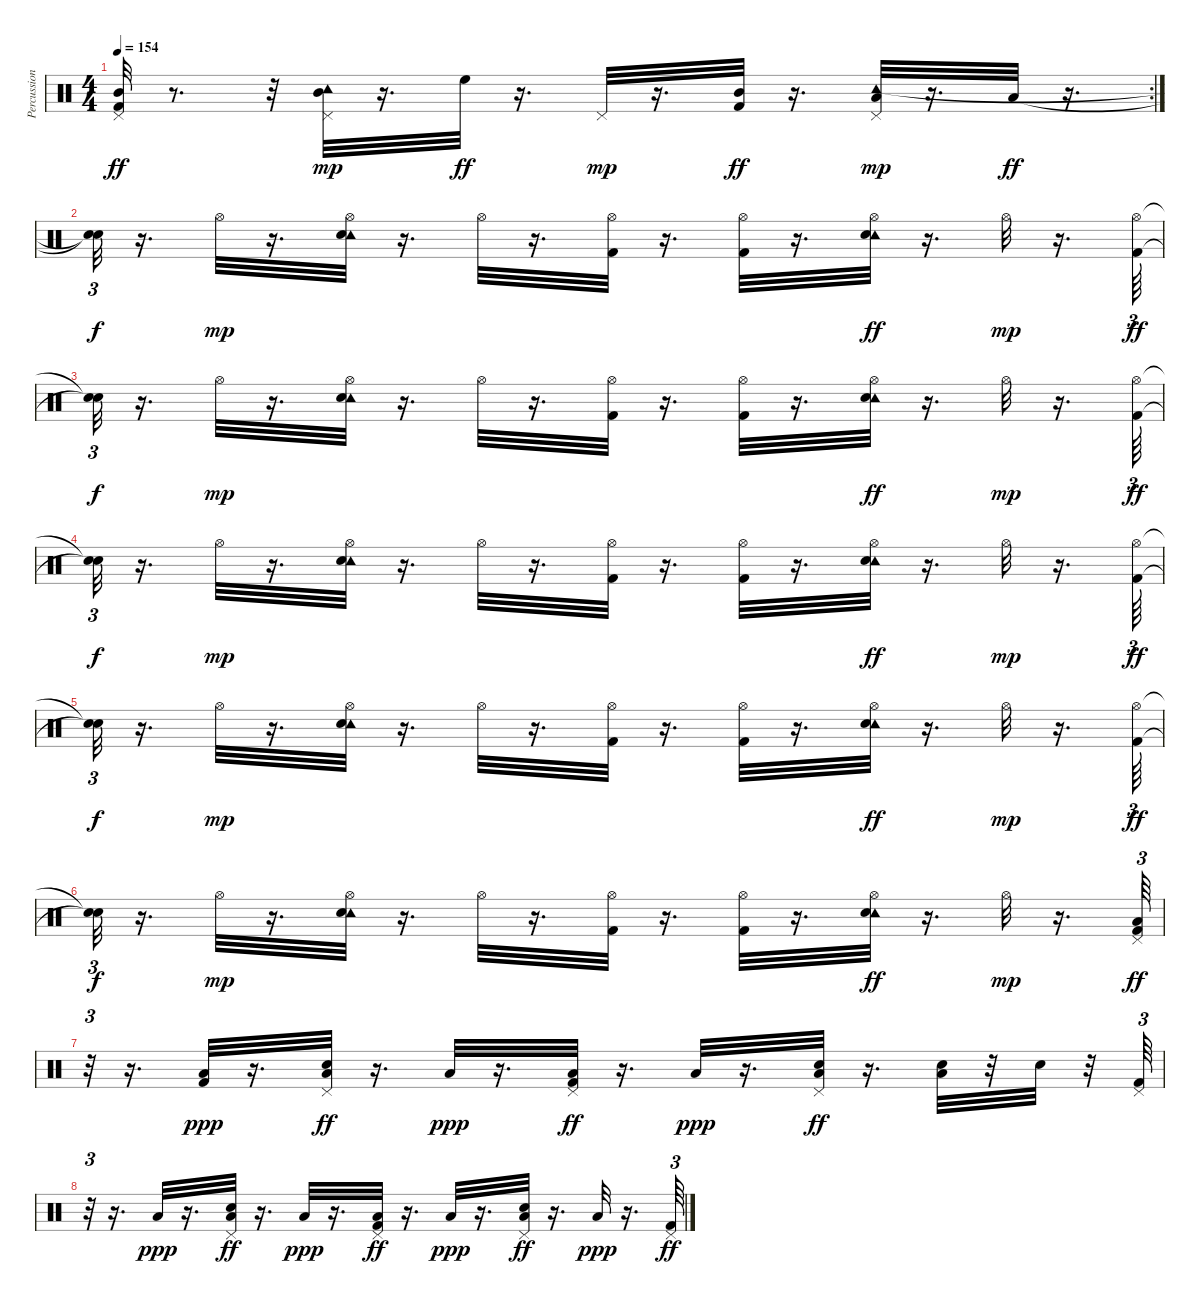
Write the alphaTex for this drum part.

\track ("Percussions" "Percussion") {instrument percussion}
\staff {score}
\articulation defaults
\rc 2
\ts (4 4)
\tempo 154
\clef neutral
\ks c
("Mid Tom (hit)" "Pedal Hi-Hat (hit)" "Kick (hit) 2").32{dy ff} r.8{d} r.32 ("Mid Tom (hit)" "Tambourine (hit)" "Pedal Hi-Hat (hit)").32{dy mp} r.16{d} "High Floor Tom (hit)".32{dy ff} r.16{d} "Pedal Hi-Hat (hit)".32{dy mp} r.16{d} ("Mid Tom (hit)" "Kick (hit) 2").32{dy ff} r.16{d} ("Low Tom (hit)" "Tambourine (hit)" "Pedal Hi-Hat (hit)").32{dy mp} r.16{d} "Low Tom (hit)".32{dy ff} r.16{d} |
("Snare (hit)"{t} "Snare (hit)"{t}).32{tu (3 2) dy f} r.16{d} "Hi-Hat (open)".32{dy mp} r.16{d} ("Hi-Hat (open)" "Tambourine (hit)" "Snare (hit) 2").32 r.16{d} "Hi-Hat (open)".32 r.16{d} ("Hi-Hat (open)" "Kick (hit) 2").32 r.16{d} ("Hi-Hat (open)" "Kick (hit) 2").32 r.16{d} ("Hi-Hat (open)" "Tambourine (hit)" "Snare (hit) 2").32{dy ff} r.16{d} "Hi-Hat (open)".32{dy mp} r.16{d} ("Hi-Hat (open)" "Kick (hit) 2").64{tu (3 2) dy ff} |
("Snare (hit)"{t} "Snare (hit)"{t}).32{tu (3 2) dy f} r.16{d} "Hi-Hat (open)".32{dy mp} r.16{d} ("Hi-Hat (open)" "Tambourine (hit)" "Snare (hit) 2").32 r.16{d} "Hi-Hat (open)".32 r.16{d} ("Hi-Hat (open)" "Kick (hit) 2").32 r.16{d} ("Hi-Hat (open)" "Kick (hit) 2").32 r.16{d} ("Hi-Hat (open)" "Tambourine (hit)" "Snare (hit) 2").32{dy ff} r.16{d} "Hi-Hat (open)".32{dy mp} r.16{d} ("Hi-Hat (open)" "Kick (hit) 2").64{tu (3 2) dy ff} |
("Snare (hit)"{t} "Snare (hit)"{t}).32{tu (3 2) dy f} r.16{d} "Hi-Hat (open)".32{dy mp} r.16{d} ("Hi-Hat (open)" "Tambourine (hit)" "Snare (hit) 2").32 r.16{d} "Hi-Hat (open)".32 r.16{d} ("Hi-Hat (open)" "Kick (hit) 2").32 r.16{d} ("Hi-Hat (open)" "Kick (hit) 2").32 r.16{d} ("Hi-Hat (open)" "Tambourine (hit)" "Snare (hit) 2").32{dy ff} r.16{d} "Hi-Hat (open)".32{dy mp} r.16{d} ("Hi-Hat (open)" "Kick (hit) 2").64{tu (3 2) dy ff} |
("Snare (hit)"{t} "Snare (hit)"{t}).32{tu (3 2) dy f} r.16{d} "Hi-Hat (open)".32{dy mp} r.16{d} ("Hi-Hat (open)" "Tambourine (hit)" "Snare (hit) 2").32 r.16{d} "Hi-Hat (open)".32 r.16{d} ("Hi-Hat (open)" "Kick (hit) 2").32 r.16{d} ("Hi-Hat (open)" "Kick (hit) 2").32 r.16{d} ("Hi-Hat (open)" "Tambourine (hit)" "Snare (hit) 2").32{dy ff} r.16{d} "Hi-Hat (open)".32{dy mp} r.16{d} ("Hi-Hat (open)" "Kick (hit) 2").64{tu (3 2) dy ff} |
("Snare (hit)"{t} "Snare (hit)"{t}).32{tu (3 2) dy f} r.16{d} "Hi-Hat (open)".32{dy mp} r.16{d} ("Hi-Hat (open)" "Tambourine (hit)" "Snare (hit) 2").32 r.16{d} "Hi-Hat (open)".32 r.16{d} ("Hi-Hat (open)" "Kick (hit) 2").32 r.16{d} ("Hi-Hat (open)" "Kick (hit) 2").32 r.16{d} ("Hi-Hat (open)" "Tambourine (hit)" "Snare (hit) 2").32{dy ff} r.16{d} "Hi-Hat (open)".32{dy mp} r.16{d} ("Pedal Hi-Hat (hit)" "Low Tom (hit)" "Kick (hit) 2").64{tu (3 2) dy ff} |
r.32{tu (3 2)} r.16{d} ("Low Tom (hit)" "Kick (hit) 2").32{dy ppp} r.16{d} ("Pedal Hi-Hat (hit)" "Low Tom (hit)" "Snare (hit) 2").32{dy ff} r.16{d} "Low Tom (hit)".32{dy ppp} r.16{d} ("Pedal Hi-Hat (hit)" "Low Tom (hit)" "Kick (hit) 2").32{dy ff} r.16{d} "Low Tom (hit)".32{dy ppp} r.16{d} ("Pedal Hi-Hat (hit)" "Low Tom (hit)" "Snare (hit) 2").32{dy ff} r.16{d} ("Low Tom (hit)" "Snare (hit) 2").32 r.32 "Snare (hit) 2".32 r.32 ("Pedal Hi-Hat (hit)" "Kick (hit) 2").64{tu (3 2)} |
r.32{tu (3 2)} r.16{d} "Low Tom (hit)".32{dy ppp} r.16{d} ("Pedal Hi-Hat (hit)" "Low Tom (hit)" "Snare (hit) 2").32{dy ff} r.16{d} "Low Tom (hit)".32{dy ppp} r.16{d} ("Pedal Hi-Hat (hit)" "Low Tom (hit)" "Kick (hit) 2").32{dy ff} r.16{d} "Low Tom (hit)".32{dy ppp} r.16{d} ("Pedal Hi-Hat (hit)" "Low Tom (hit)" "Snare (hit) 2").32{dy ff} r.16{d} "Low Tom (hit)".32{dy ppp} r.16{d} ("Pedal Hi-Hat (hit)" "Kick (hit) 2").64{tu (3 2) dy ff}
